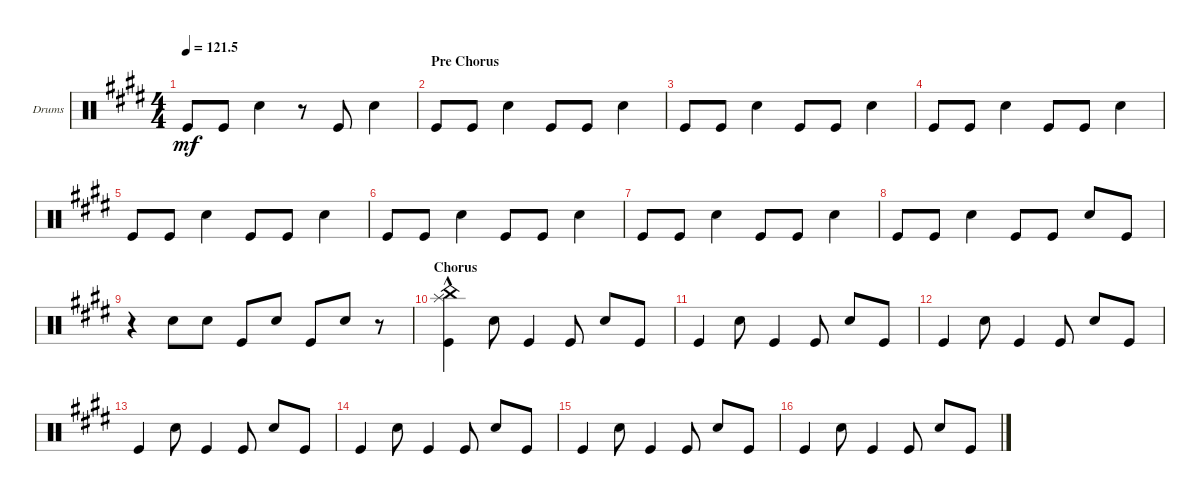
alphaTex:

\defaultSystemsLayout 4
\bracketExtendMode groupsimilarinstruments
\firstSystemTrackNameOrientation horizontal
\otherSystemsTrackNameOrientation horizontal
\track ("Drumkit" "Drums") {solo instrument percussion}
\staff {score}
\articulation defaults
\ts (4 4)
\tempo
121.5
\accidentals auto
\clef neutral
\ottava regular
\simile none
\scale
0.333333
\ks e "Kick (hit)".8{dy mf} "Kick (hit)".8 "Snare (hit) 2".4
r.8 "Kick (hit)".8 "Snare (hit) 2".4 |
\section ("" "Pre Chorus")
\scale
0.333333 "Kick (hit)".8 "Kick (hit)".8 "Snare (hit) 2".4 "Kick (hit)".8 "Kick (hit)".8 "Snare (hit) 2".4 |
\scale
0.333333 "Kick (hit)".8 "Kick (hit)".8 "Snare (hit) 2".4 "Kick (hit)".8 "Kick (hit)".8 "Snare (hit) 2".4 |
\scale
0.333333 "Kick (hit)".8 "Kick (hit)".8 "Snare (hit) 2".4 "Kick (hit)".8 "Kick (hit)".8 "Snare (hit) 2".4 |
\scale
0.333333 "Kick (hit)".8 "Kick (hit)".8 "Snare (hit) 2".4 "Kick (hit)".8 "Kick (hit)".8 "Snare (hit) 2".4 |
\scale
0.333333 "Kick (hit)".8 "Kick (hit)".8 "Snare (hit) 2".4 "Kick (hit)".8 "Kick (hit)".8 "Snare (hit) 2".4 |
\scale
0.333333 "Kick (hit)".8 "Kick (hit)".8 "Snare (hit) 2".4 "Kick (hit)".8 "Kick (hit)".8 "Snare (hit) 2".4 |
\scale
0.333333 "Kick (hit)".8 "Kick (hit)".8 "Snare (hit) 2".4 "Kick (hit)".8 "Kick (hit)".8 "Snare (hit) 2".8 "Kick (hit)".8 |
\scale
0.333333 r.4 "Snare (hit) 2".8 "Snare (hit) 2".8 "Kick (hit)".8 "Snare (hit) 2".8 "Kick (hit)".8 "Snare (hit) 2".8 r.8 |
\section ("" "Chorus")
\scale
0.333333 ("Kick (hit)" "Splash (hit)"{hac} "China (hit)").4 "Snare (hit) 2".8 "Kick (hit)".4 "Kick (hit)".8 "Snare (hit) 2".8 "Kick (hit)".8 |
\scale
0.333333 "Kick (hit)".4 "Snare (hit) 2".8 "Kick (hit)".4 "Kick (hit)".8 "Snare (hit) 2".8 "Kick (hit)".8 |
\scale
0.333333 "Kick (hit)".4 "Snare (hit) 2".8 "Kick (hit)".4 "Kick (hit)".8 "Snare (hit) 2".8 "Kick (hit)".8 |
\scale
0.333333 "Kick (hit)".4 "Snare (hit) 2".8 "Kick (hit)".4 "Kick (hit)".8 "Snare (hit) 2".8 "Kick (hit)".8 |
\scale
0.333333 "Kick (hit)".4 "Snare (hit) 2".8 "Kick (hit)".4 "Kick (hit)".8 "Snare (hit) 2".8 "Kick (hit)".8 |
\scale
0.333333 "Kick (hit)".4 "Snare (hit) 2".8 "Kick (hit)".4 "Kick (hit)".8 "Snare (hit) 2".8 "Kick (hit)".8 |
\scale
0.333333 "Kick (hit)".4 "Snare (hit) 2".8 "Kick (hit)".4 "Kick (hit)".8 "Snare (hit) 2".8 "Kick (hit)".8
